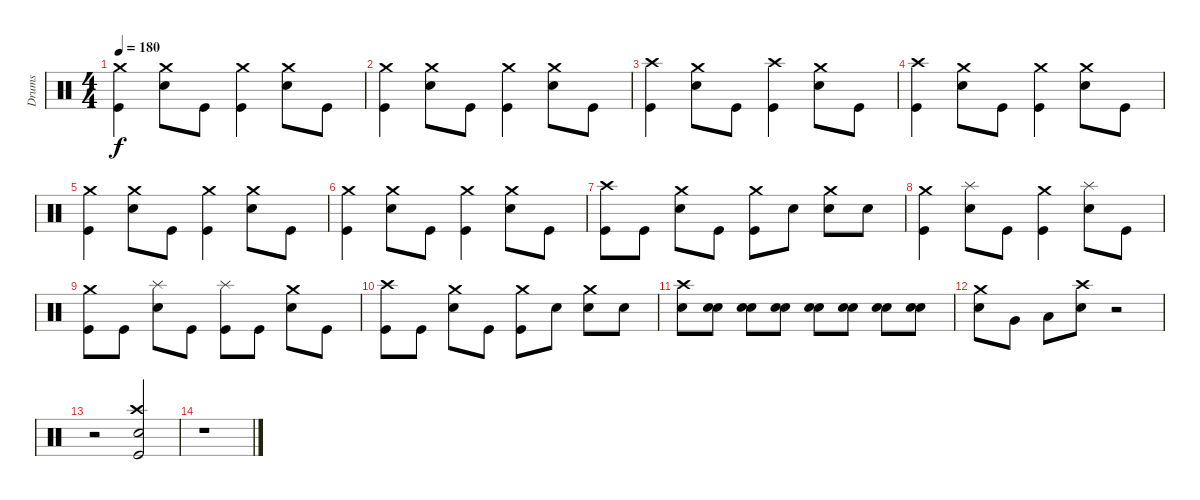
\track ("Drums" "Drums") {instrument percussion}
\staff {score}
\articulation defaults
\ts (4 4)
\tempo 180
\clef neutral
\ks c
("Crash medium (hit)" "Kick (hit)").4{dy f} ("Crash medium (hit)" "Electric Snare (hit)").8 "Kick (hit)".8 ("Crash medium (hit)" "Kick (hit)").4 ("Crash medium (hit)" "Electric Snare (hit)").8 "Kick (hit)".8 |
("Crash medium (hit)" "Kick (hit)").4 ("Crash medium (hit)" "Electric Snare (hit)").8 "Kick (hit)".8 ("Crash medium (hit)" "Kick (hit)").4 ("Crash medium (hit)" "Electric Snare (hit)").8 "Kick (hit)".8 |
("Crash high (hit)" "Kick (hit)").4 ("Crash medium (hit)" "Electric Snare (hit)").8 "Kick (hit)".8 ("Crash high (hit)" "Kick (hit)").4 ("Crash medium (hit)" "Electric Snare (hit)").8 "Kick (hit)".8 |
("Crash high (hit)" "Kick (hit)").4 ("Crash medium (hit)" "Electric Snare (hit)").8 "Kick (hit)".8 ("Crash medium (hit)" "Kick (hit)").4 ("Crash medium (hit)" "Electric Snare (hit)").8 "Kick (hit)".8 |
("Crash medium (hit)" "Kick (hit)").4 ("Crash medium (hit)" "Electric Snare (hit)").8 "Kick (hit)".8 ("Crash medium (hit)" "Kick (hit)").4 ("Crash medium (hit)" "Electric Snare (hit)").8 "Kick (hit)".8 |
("Crash medium (hit)" "Kick (hit)").4 ("Crash medium (hit)" "Electric Snare (hit)").8 "Kick (hit)".8 ("Crash medium (hit)" "Kick (hit)").4 ("Crash medium (hit)" "Electric Snare (hit)").8 "Kick (hit)".8 |
("Crash high (hit)" "Kick (hit)").8 "Kick (hit)".8 ("Crash medium (hit)" "Snare (hit) 2").8 "Kick (hit)".8 ("Crash medium (hit)" "Kick (hit)").8 "Snare (hit) 2".8 ("Crash medium (hit)" "Snare (hit) 2").8 "Snare (hit) 2".8 |
("Crash medium (hit)" "Kick (hit)").4 ("Splash (hit)" "Snare (hit) 2").8 "Kick (hit)".8 ("Crash medium (hit)" "Kick (hit)").4 ("Splash (hit)" "Snare (hit) 2").8 "Kick (hit)".8 |
("Crash medium (hit)" "Kick (hit)").8 "Kick (hit)".8 ("Splash (hit)" "Snare (hit) 2").8 "Kick (hit)".8 ("Splash (hit)" "Kick (hit)").8 "Kick (hit)".8 ("Crash medium (hit)" "Snare (hit) 2").8 "Kick (hit)".8 |
("Crash high (hit)" "Kick (hit)").8 "Kick (hit)".8 ("Crash medium (hit)" "Snare (hit) 2").8 "Kick (hit)".8 ("Crash medium (hit)" "Kick (hit)").8 "Snare (hit) 2".8 ("Crash medium (hit)" "Snare (hit) 2").8 "Snare (hit) 2".8 |
("Crash high (hit)" "Snare (hit) 2").8 ("Snare (hit) 2" "Snare (hit) 2").8 ("Snare (hit) 2" "Snare (hit) 2").8 ("Snare (hit) 2" "Snare (hit) 2").8 ("Snare (hit) 2" "Snare (hit) 2").8 ("Snare (hit) 2" "Snare (hit) 2").8 ("Snare (hit) 2" "Snare (hit) 2").8 ("Snare (hit) 2" "Snare (hit) 2").8 |
("Crash medium (hit)" "Snare (hit) 2").8 "Very Low Tom (hit)".8 "Low Tom (hit)".8 ("Crash high (hit)" "Snare (hit) 2").8 r.2 |
r.2 ("Crash high (hit)" "Snare (hit) 2" "Kick (hit)").2 |
r.1
